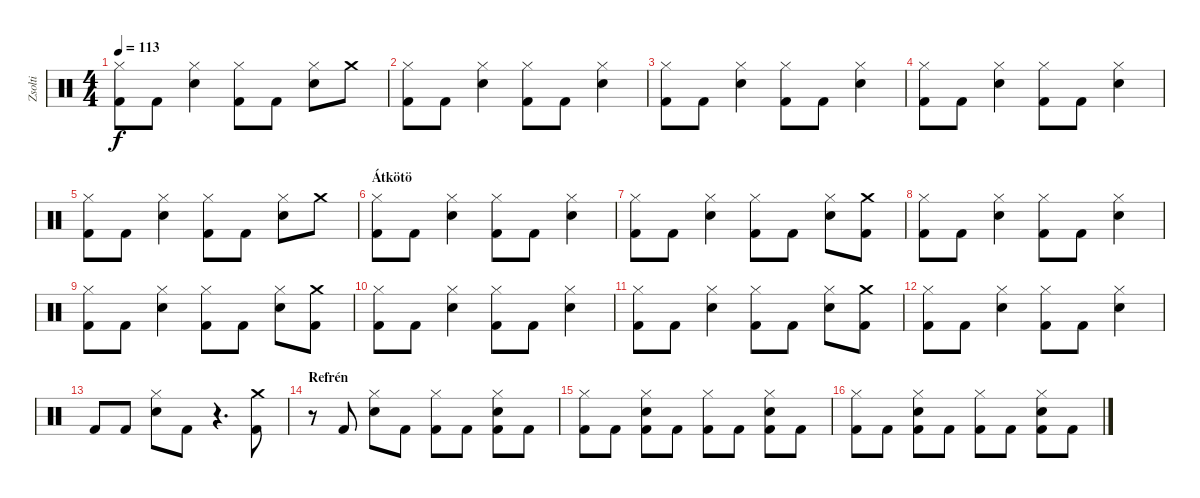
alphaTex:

\track ("Zsolti" "Zsolti") {instrument percussion}
\staff {score}
\articulation defaults
\ts (4 4)
\tempo 113
\clef neutral
\ks c
("Hi-Hat (closed)" "Kick (hit) 2").8{dy f} "Kick (hit) 2".8 ("Hi-Hat (closed)" "Snare (hit) 2").4 ("Hi-Hat (closed)" "Kick (hit) 2").8 "Kick (hit) 2".8 ("Hi-Hat (closed)" "Snare (hit) 2").8 "Crash medium (hit)".8 |
("Hi-Hat (closed)" "Kick (hit) 2").8 "Kick (hit) 2".8 ("Hi-Hat (closed)" "Snare (hit) 2").4 ("Hi-Hat (closed)" "Kick (hit) 2").8 "Kick (hit) 2".8 ("Hi-Hat (closed)" "Snare (hit) 2").4 |
("Hi-Hat (closed)" "Kick (hit) 2").8 "Kick (hit) 2".8 ("Hi-Hat (closed)" "Snare (hit) 2").4 ("Hi-Hat (closed)" "Kick (hit) 2").8 "Kick (hit) 2".8 ("Hi-Hat (closed)" "Snare (hit) 2").4 |
("Hi-Hat (closed)" "Kick (hit) 2").8 "Kick (hit) 2".8 ("Hi-Hat (closed)" "Snare (hit) 2").4 ("Hi-Hat (closed)" "Kick (hit) 2").8 "Kick (hit) 2".8 ("Hi-Hat (closed)" "Snare (hit) 2").4 |
("Hi-Hat (closed)" "Kick (hit) 2").8 "Kick (hit) 2".8 ("Hi-Hat (closed)" "Snare (hit) 2").4 ("Hi-Hat (closed)" "Kick (hit) 2").8 "Kick (hit) 2".8 ("Hi-Hat (closed)" "Snare (hit) 2").8 "Crash medium (hit)".8 |
\section ("" "Átkötö")
("Hi-Hat (closed)" "Kick (hit) 2").8 "Kick (hit) 2".8 ("Hi-Hat (closed)" "Snare (hit) 2").4 ("Hi-Hat (closed)" "Kick (hit) 2").8 "Kick (hit) 2".8 ("Hi-Hat (closed)" "Snare (hit) 2").4 |
("Hi-Hat (closed)" "Kick (hit) 2").8 "Kick (hit) 2".8 ("Hi-Hat (closed)" "Snare (hit) 2").4 ("Hi-Hat (closed)" "Kick (hit) 2").8 "Kick (hit) 2".8 ("Hi-Hat (closed)" "Snare (hit) 2").8 ("Crash medium (hit)" "Kick (hit) 2").8 |
("Hi-Hat (closed)" "Kick (hit) 2").8 "Kick (hit) 2".8 ("Hi-Hat (closed)" "Snare (hit) 2").4 ("Hi-Hat (closed)" "Kick (hit) 2").8 "Kick (hit) 2".8 ("Hi-Hat (closed)" "Snare (hit) 2").4 |
("Hi-Hat (closed)" "Kick (hit) 2").8 "Kick (hit) 2".8 ("Hi-Hat (closed)" "Snare (hit) 2").4 ("Hi-Hat (closed)" "Kick (hit) 2").8 "Kick (hit) 2".8 ("Hi-Hat (closed)" "Snare (hit) 2").8 ("Crash medium (hit)" "Kick (hit) 2").8 |
("Hi-Hat (closed)" "Kick (hit) 2").8 "Kick (hit) 2".8 ("Hi-Hat (closed)" "Snare (hit) 2").4 ("Hi-Hat (closed)" "Kick (hit) 2").8 "Kick (hit) 2".8 ("Hi-Hat (closed)" "Snare (hit) 2").4 |
("Hi-Hat (closed)" "Kick (hit) 2").8 "Kick (hit) 2".8 ("Hi-Hat (closed)" "Snare (hit) 2").4 ("Hi-Hat (closed)" "Kick (hit) 2").8 "Kick (hit) 2".8 ("Hi-Hat (closed)" "Snare (hit) 2").8 ("Crash medium (hit)" "Kick (hit) 2").8 |
("Hi-Hat (closed)" "Kick (hit) 2").8 "Kick (hit) 2".8 ("Hi-Hat (closed)" "Snare (hit) 2").4 ("Hi-Hat (closed)" "Kick (hit) 2").8 "Kick (hit) 2".8 ("Hi-Hat (closed)" "Snare (hit) 2").4 |
"Kick (hit) 2".8 "Kick (hit) 2".8 ("Hi-Hat (closed)" "Snare (hit) 2").8 "Kick (hit) 2".8 r.4{d} ("Crash medium (hit)" "Kick (hit) 2").8 |
\section ("" "Refrén")
r.8 "Kick (hit) 2".8 ("Hi-Hat (closed)" "Snare (hit) 2").8 "Kick (hit) 2".8 ("Hi-Hat (closed)" "Kick (hit) 2").8 "Kick (hit) 2".8 ("Hi-Hat (closed)" "Snare (hit) 2" "Kick (hit) 2").8 "Kick (hit) 2".8 |
("Hi-Hat (closed)" "Kick (hit) 2").8 "Kick (hit) 2".8 ("Hi-Hat (closed)" "Snare (hit) 2" "Kick (hit) 2").8 "Kick (hit) 2".8 ("Hi-Hat (closed)" "Kick (hit) 2").8 "Kick (hit) 2".8 ("Hi-Hat (closed)" "Snare (hit) 2" "Kick (hit) 2").8 "Kick (hit) 2".8 |
("Hi-Hat (closed)" "Kick (hit) 2").8 "Kick (hit) 2".8 ("Hi-Hat (closed)" "Snare (hit) 2" "Kick (hit) 2").8 "Kick (hit) 2".8 ("Hi-Hat (closed)" "Kick (hit) 2").8 "Kick (hit) 2".8 ("Hi-Hat (closed)" "Snare (hit) 2" "Kick (hit) 2").8 "Kick (hit) 2".8
